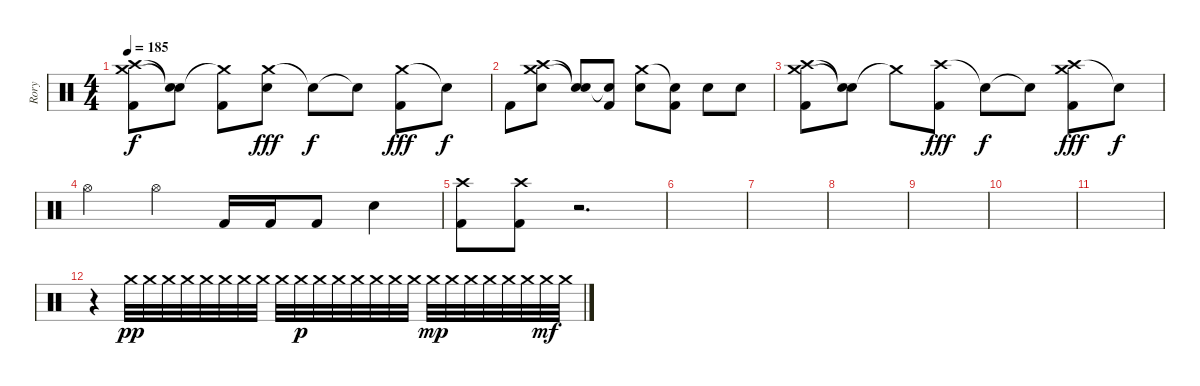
\track ("Rory" "Rory") {instrument percussion}
\staff {score}
\articulation defaults
\ts (4 4)
\tempo 185
\clef neutral
\ks c
("Crash medium (hit)" "Crash high (hit)" "Kick (hit) 2").8{dy f} ("Snare (hit)"{t} "Snare (hit)"{t}).8 ("Crash medium (hit)"{t} "Kick (hit) 2").8 ("Crash medium (hit)" "Electric Snare (hit)").8{dy fff} "Snare (hit)"{t}.8{dy f} "Snare (hit)"{t}.8 ("Crash medium (hit)" "Kick (hit) 2").8{dy fff} "Snare (hit)"{t}.8{dy f} |
"Kick (hit) 2".8 ("Crash medium (hit)" "Crash high (hit)" "Electric Snare (hit)").8 ("Snare (hit)"{t} "Snare (hit)"{t}).8 ("Snare (hit)"{t} "Kick (hit) 2").8 ("Crash medium (hit)" "Electric Snare (hit)").8 ("Snare (hit)"{t} "Kick (hit) 2").8 "Electric Snare (hit)".8 "Electric Snare (hit)".8 |
("Crash medium (hit)" "Crash high (hit)" "Kick (hit) 2").8 ("Snare (hit)"{t} "Snare (hit)"{t}).8 "Crash medium (hit)"{t}.8 ("Crash high (hit)" "Kick (hit) 2").8{dy fff} "Snare (hit)"{t}.8{dy f} "Snare (hit)"{t}.8 ("Crash high (hit)" "Crash medium (hit)" "Kick (hit) 2").8{dy fff} "Snare (hit)"{t}.8{dy f} |
"Hi-Hat (open)".4 "Hi-Hat (open)".4 "Kick (hit) 2".16 "Kick (hit) 2".16 "Kick (hit) 2".8 "Electric Snare (hit)".4 |
("Crash high (hit)" "Kick (hit) 2").8 ("Crash high (hit)" "Kick (hit) 2").8 r.2{d} |
|
|
|
|
|
|
r.4 "Crash medium (hit)".32{dy pp} "Crash medium (hit)".32 "Crash medium (hit)".32 "Crash medium (hit)".32 "Crash medium (hit)".32 "Crash medium (hit)".32 "Crash medium (hit)".32 "Crash medium (hit)".32 "Crash medium (hit)".32 "Crash medium (hit)".32{dy p} "Crash medium (hit)".32 "Crash medium (hit)".32 "Crash medium (hit)".32 "Crash medium (hit)".32 "Crash medium (hit)".32 "Crash medium (hit)".32 "Crash medium (hit)".32{dy mp} "Crash medium (hit)".32 "Crash medium (hit)".32 "Crash medium (hit)".32 "Crash medium (hit)".32 "Crash medium (hit)".32 "Crash medium (hit)".32{dy mf} "Crash medium (hit)".32
